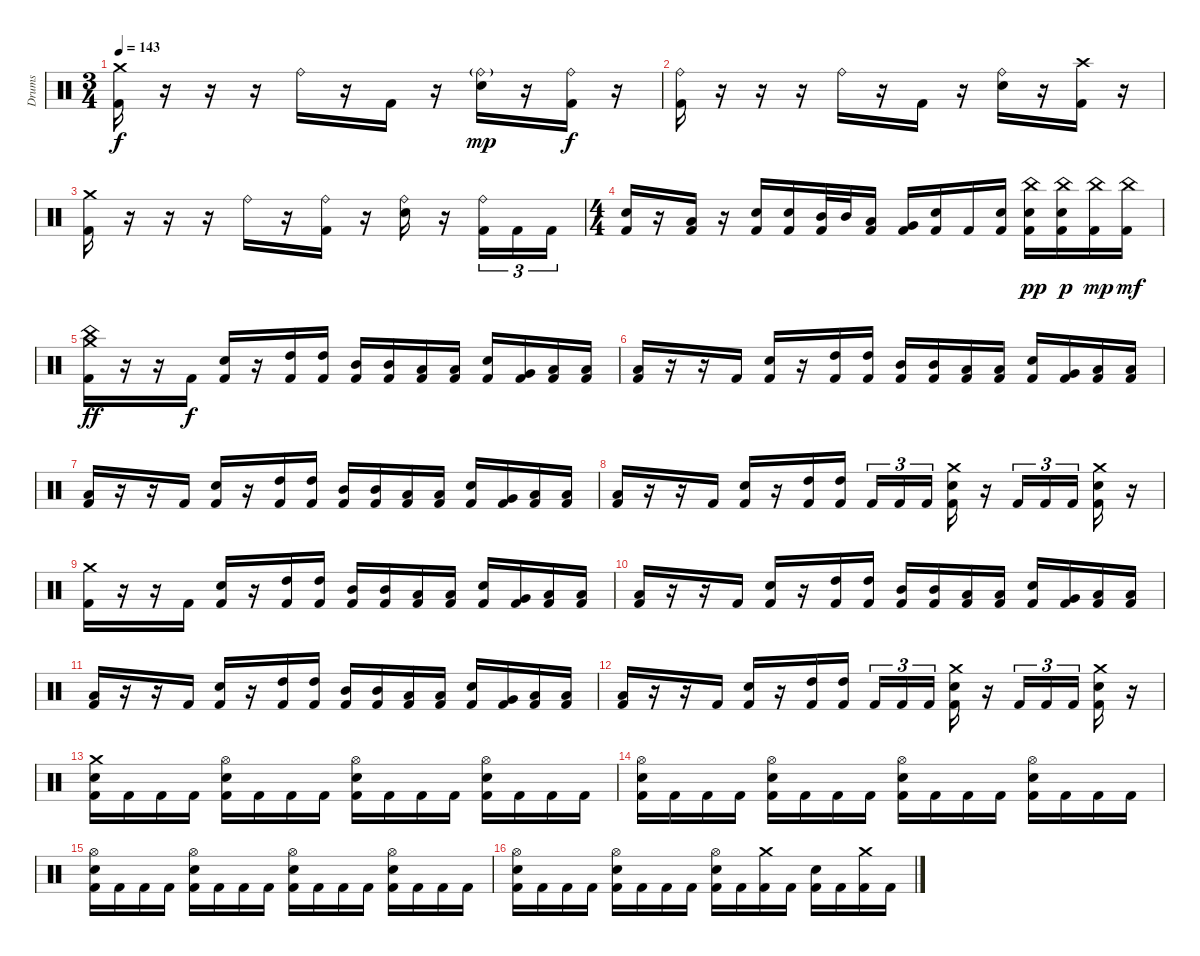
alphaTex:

\track ("Drums" "Drums") {instrument percussion}
\staff {score}
\articulation defaults
\ts (3 4)
\tempo 143
\clef neutral
\ks c
("Crash medium (hit)" "Kick (hit) 2").16{dy f} r.16 r.16 r.16 "Ride (bell)".16 r.16 "Kick (hit) 2".16 r.16 ("Ride (bell)"{g} "Electric Snare (hit)").16{dy mp} r.16 ("Ride (bell)" "Kick (hit) 2").16{dy f} r.16 |
("Ride (bell)" "Kick (hit) 2").16 r.16 r.16 r.16 "Ride (bell)".16 r.16 "Kick (hit) 2".16 r.16 ("Ride (bell)" "Electric Snare (hit)").16 r.16 ("Crash high (hit)" "Kick (hit) 2").16 r.16 |
("Crash medium (hit)" "Kick (hit) 2").16 r.16 r.16 r.16 "Ride (bell)".16 r.16 ("Ride (bell)" "Kick (hit) 2").16 r.16 ("Ride (bell)" "Electric Snare (hit)").16 r.16 ("Ride (bell)" "Kick (hit) 2").16{tu (3 2)} "Kick (hit) 2".16{tu (3 2)} "Kick (hit) 2".16{tu (3 2)} |
\ts (4 4)
("Electric Snare (hit)" "Kick (hit) 2").16 r.16 ("Low Tom (hit)" "Kick (hit) 2").16 r.16 ("Electric Snare (hit)" "Kick (hit) 2").16 ("Electric Snare (hit)" "Kick (hit) 2").16 ("Mid Tom (hit)" "Kick (hit) 2").32 "Mid Tom (hit)".32 ("Low Tom (hit)" "Kick (hit) 2").16 ("Very Low Tom (hit)" "Kick (hit) 2").16 ("Electric Snare (hit)" "Kick (hit) 2").16 "Kick (hit) 2".16 ("Electric Snare (hit)" "Kick (hit) 2").16 ("China (hit)" "Electric Snare (hit)" "Kick (hit) 2").16{dy pp} ("China (hit)" "Electric Snare (hit)" "Kick (hit) 2").16{dy p} ("China (hit)" "Kick (hit) 2").16{dy mp} ("China (hit)" "Kick (hit) 2").16{dy mf} |
\section ("" "")
("Crash medium (hit)" "China (hit)" "Kick (hit) 2").16{dy ff} r.16 r.16 "Kick (hit) 2".16{dy f} ("Electric Snare (hit)" "Kick (hit) 2").16 r.16 ("High Tom (hit)" "Kick (hit) 2").16 ("High Tom (hit)" "Kick (hit) 2").16 ("Mid Tom (hit)" "Kick (hit) 2").16 ("Mid Tom (hit)" "Kick (hit) 2").16 ("Low Tom (hit)" "Kick (hit) 2").16 ("Low Tom (hit)" "Kick (hit) 2").16 ("Electric Snare (hit)" "Kick (hit) 2").16 ("Very Low Tom (hit)" "Kick (hit) 2").16 ("Low Floor Tom (hit)" "Kick (hit) 2").16 ("Low Floor Tom (hit)" "Kick (hit) 2").16 |
("Low Floor Tom (hit)" "Kick (hit) 2").16 r.16 r.16 "Kick (hit) 2".16 ("Electric Snare (hit)" "Kick (hit) 2").16 r.16 ("High Tom (hit)" "Kick (hit) 2").16 ("High Tom (hit)" "Kick (hit) 2").16 ("Mid Tom (hit)" "Kick (hit) 2").16 ("Mid Tom (hit)" "Kick (hit) 2").16 ("Low Tom (hit)" "Kick (hit) 2").16 ("Low Tom (hit)" "Kick (hit) 2").16 ("Electric Snare (hit)" "Kick (hit) 2").16 ("Very Low Tom (hit)" "Kick (hit) 2").16 ("Low Floor Tom (hit)" "Kick (hit) 2").16 ("Low Floor Tom (hit)" "Kick (hit) 2").16 |
("Low Floor Tom (hit)" "Kick (hit) 2").16 r.16 r.16 "Kick (hit) 2".16 ("Electric Snare (hit)" "Kick (hit) 2").16 r.16 ("High Tom (hit)" "Kick (hit) 2").16 ("High Tom (hit)" "Kick (hit) 2").16 ("Mid Tom (hit)" "Kick (hit) 2").16 ("Mid Tom (hit)" "Kick (hit) 2").16 ("Low Tom (hit)" "Kick (hit) 2").16 ("Low Tom (hit)" "Kick (hit) 2").16 ("Electric Snare (hit)" "Kick (hit) 2").16 ("Very Low Tom (hit)" "Kick (hit) 2").16 ("Low Floor Tom (hit)" "Kick (hit) 2").16 ("Low Floor Tom (hit)" "Kick (hit) 2").16 |
("Low Floor Tom (hit)" "Kick (hit) 2").16 r.16 r.16 "Kick (hit) 2".16 ("Electric Snare (hit)" "Kick (hit) 2").16 r.16 ("High Tom (hit)" "Kick (hit) 2").16 ("High Tom (hit)" "Kick (hit) 2").16 "Kick (hit) 2".16{tu (3 2)} "Kick (hit) 2".16{tu (3 2)} "Kick (hit) 2".16{tu (3 2)} ("Crash medium (hit)" "Electric Snare (hit)" "Kick (hit) 2").16 r.16 "Kick (hit) 2".16{tu (3 2)} "Kick (hit) 2".16{tu (3 2)} "Kick (hit) 2".16{tu (3 2)} ("Crash medium (hit)" "Electric Snare (hit)" "Kick (hit) 2").16 r.16 |
("Crash medium (hit)" "Kick (hit) 2").16 r.16 r.16 "Kick (hit) 2".16 ("Electric Snare (hit)" "Kick (hit) 2").16 r.16 ("High Tom (hit)" "Kick (hit) 2").16 ("High Tom (hit)" "Kick (hit) 2").16 ("Mid Tom (hit)" "Kick (hit) 2").16 ("Mid Tom (hit)" "Kick (hit) 2").16 ("Low Tom (hit)" "Kick (hit) 2").16 ("Low Tom (hit)" "Kick (hit) 2").16 ("Electric Snare (hit)" "Kick (hit) 2").16 ("Very Low Tom (hit)" "Kick (hit) 2").16 ("Low Floor Tom (hit)" "Kick (hit) 2").16 ("Low Floor Tom (hit)" "Kick (hit) 2").16 |
("Low Floor Tom (hit)" "Kick (hit) 2").16 r.16 r.16 "Kick (hit) 2".16 ("Electric Snare (hit)" "Kick (hit) 2").16 r.16 ("High Tom (hit)" "Kick (hit) 2").16 ("High Tom (hit)" "Kick (hit) 2").16 ("Mid Tom (hit)" "Kick (hit) 2").16 ("Mid Tom (hit)" "Kick (hit) 2").16 ("Low Tom (hit)" "Kick (hit) 2").16 ("Low Tom (hit)" "Kick (hit) 2").16 ("Electric Snare (hit)" "Kick (hit) 2").16 ("Very Low Tom (hit)" "Kick (hit) 2").16 ("Low Floor Tom (hit)" "Kick (hit) 2").16 ("Low Floor Tom (hit)" "Kick (hit) 2").16 |
("Low Floor Tom (hit)" "Kick (hit) 2").16 r.16 r.16 "Kick (hit) 2".16 ("Electric Snare (hit)" "Kick (hit) 2").16 r.16 ("High Tom (hit)" "Kick (hit) 2").16 ("High Tom (hit)" "Kick (hit) 2").16 ("Mid Tom (hit)" "Kick (hit) 2").16 ("Mid Tom (hit)" "Kick (hit) 2").16 ("Low Tom (hit)" "Kick (hit) 2").16 ("Low Tom (hit)" "Kick (hit) 2").16 ("Electric Snare (hit)" "Kick (hit) 2").16 ("Very Low Tom (hit)" "Kick (hit) 2").16 ("Low Floor Tom (hit)" "Kick (hit) 2").16 ("Low Floor Tom (hit)" "Kick (hit) 2").16 |
("Low Floor Tom (hit)" "Kick (hit) 2").16 r.16 r.16 "Kick (hit) 2".16 ("Electric Snare (hit)" "Kick (hit) 2").16 r.16 ("High Tom (hit)" "Kick (hit) 2").16 ("High Tom (hit)" "Kick (hit) 2").16 "Kick (hit) 2".16{tu (3 2)} "Kick (hit) 2".16{tu (3 2)} "Kick (hit) 2".16{tu (3 2)} ("Crash medium (hit)" "Electric Snare (hit)" "Kick (hit) 2").16 r.16 "Kick (hit) 2".16{tu (3 2)} "Kick (hit) 2".16{tu (3 2)} "Kick (hit) 2".16{tu (3 2)} ("Crash medium (hit)" "Electric Snare (hit)" "Kick (hit) 2").16 r.16 |
("Crash medium (hit)" "Electric Snare (hit)" "Kick (hit) 2").16 "Kick (hit) 2".16 "Kick (hit) 2".16 "Kick (hit) 2".16 ("Hi-Hat (open)" "Electric Snare (hit)" "Kick (hit) 2").16 "Kick (hit) 2".16 "Kick (hit) 2".16 "Kick (hit) 2".16 ("Hi-Hat (open)" "Electric Snare (hit)" "Kick (hit) 2").16 "Kick (hit) 2".16 "Kick (hit) 2".16 "Kick (hit) 2".16 ("Hi-Hat (open)" "Electric Snare (hit)" "Kick (hit) 2").16 "Kick (hit) 2".16 "Kick (hit) 2".16 "Kick (hit) 2".16 |
("Hi-Hat (open)" "Electric Snare (hit)" "Kick (hit) 2").16 "Kick (hit) 2".16 "Kick (hit) 2".16 "Kick (hit) 2".16 ("Hi-Hat (open)" "Electric Snare (hit)" "Kick (hit) 2").16 "Kick (hit) 2".16 "Kick (hit) 2".16 "Kick (hit) 2".16 ("Hi-Hat (open)" "Electric Snare (hit)" "Kick (hit) 2").16 "Kick (hit) 2".16 "Kick (hit) 2".16 "Kick (hit) 2".16 ("Hi-Hat (open)" "Electric Snare (hit)" "Kick (hit) 2").16 "Kick (hit) 2".16 "Kick (hit) 2".16 "Kick (hit) 2".16 |
("Hi-Hat (open)" "Electric Snare (hit)" "Kick (hit) 2").16 "Kick (hit) 2".16 "Kick (hit) 2".16 "Kick (hit) 2".16 ("Hi-Hat (open)" "Electric Snare (hit)" "Kick (hit) 2").16 "Kick (hit) 2".16 "Kick (hit) 2".16 "Kick (hit) 2".16 ("Hi-Hat (open)" "Electric Snare (hit)" "Kick (hit) 2").16 "Kick (hit) 2".16 "Kick (hit) 2".16 "Kick (hit) 2".16 ("Hi-Hat (open)" "Electric Snare (hit)" "Kick (hit) 2").16 "Kick (hit) 2".16 "Kick (hit) 2".16 "Kick (hit) 2".16 |
("Hi-Hat (open)" "Electric Snare (hit)" "Kick (hit) 2").16 "Kick (hit) 2".16 "Kick (hit) 2".16 "Kick (hit) 2".16 ("Hi-Hat (open)" "Electric Snare (hit)" "Kick (hit) 2").16 "Kick (hit) 2".16 "Kick (hit) 2".16 "Kick (hit) 2".16 ("Hi-Hat (open)" "Electric Snare (hit)" "Kick (hit) 2").16 "Kick (hit) 2".16 ("Crash medium (hit)" "Kick (hit) 2").16 "Kick (hit) 2".16 ("Electric Snare (hit)" "Kick (hit) 2").16 "Kick (hit) 2".16 ("Crash medium (hit)" "Kick (hit) 2").16 "Kick (hit) 2".16
